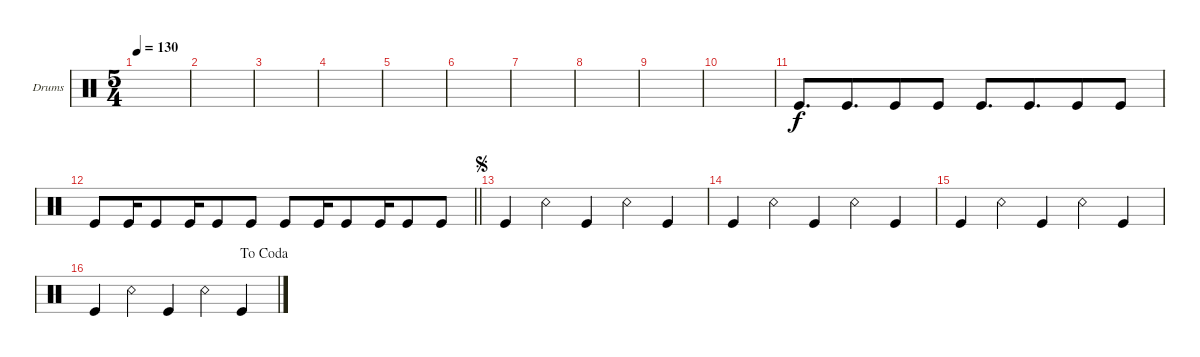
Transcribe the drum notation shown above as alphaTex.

\defaultSystemsLayout 4
\bracketExtendMode groupsimilarinstruments
\firstSystemTrackNameOrientation horizontal
\otherSystemsTrackNameOrientation horizontal
\track ("Drumkit" "Drums") {instrument percussion}
\staff {score}
\articulation defaults
\ts (5 4)
\beaming (8 5 5)
\tempo 130
\clef neutral
\ks c
|
|
|
|
|
|
|
|
|
|
"Kick (hit)".8{d} "Kick (hit)".8{d} "Kick (hit)".8 "Kick (hit)".8 "Kick (hit)".8{d} "Kick (hit)".8{d} "Kick (hit)".8 "Kick (hit)".8 |
\barLineRight lightlight "Kick (hit)".8 "Kick (hit)".16 "Kick (hit)".8 "Kick (hit)".16 "Kick (hit)".8 "Kick (hit)".8 "Kick (hit)".8 "Kick (hit)".16 "Kick (hit)".8 "Kick (hit)".16 "Kick (hit)".8 "Kick (hit)".8
|
\scale
0.662379
\jump segno "Kick (hit)".4 "Snare (rim shot)".4 "Kick (hit)".4 "Snare (rim shot)".4 "Kick (hit)".4
|
\scale
0.33746 "Kick (hit)".4 "Snare (rim shot)".4 "Kick (hit)".4 "Snare (rim shot)".4 "Kick (hit)".4 |
"Kick (hit)".4 "Snare (rim shot)".4 "Kick (hit)".4 "Snare (rim shot)".4 "Kick (hit)".4 |
\jump dacoda "Kick (hit)".4 "Snare (rim shot)".4 "Kick (hit)".4 "Snare (rim shot)".4 "Kick (hit)".4
